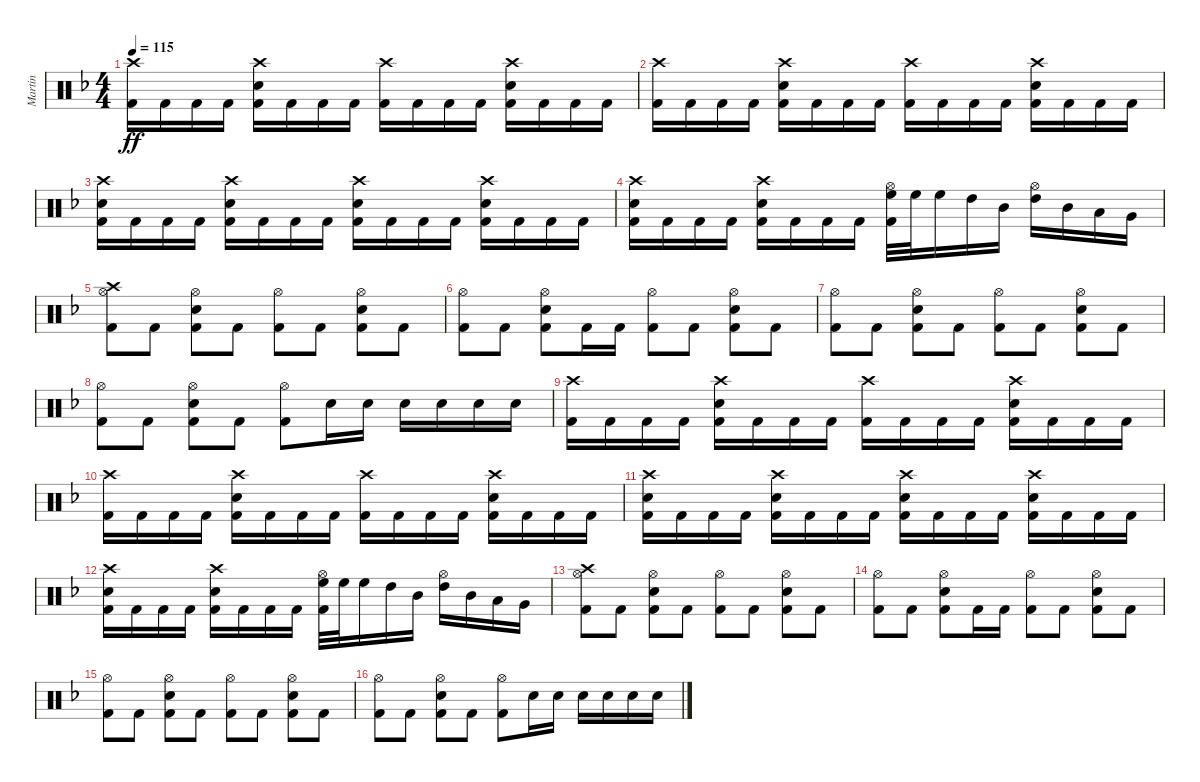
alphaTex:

\track ("Martin" "Martin") {instrument percussion}
\staff {score}
\articulation defaults
\ts (4 4)
\tempo 115
\clef neutral
\ks dminor
("Crash high (hit)" "Kick (hit) 2").16{dy ff} "Kick (hit) 2".16 "Kick (hit) 2".16 "Kick (hit) 2".16 ("Crash high (hit)" "Electric Snare (hit)" "Kick (hit) 2").16 "Kick (hit) 2".16 "Kick (hit) 2".16 "Kick (hit) 2".16 ("Crash high (hit)" "Kick (hit) 2").16 "Kick (hit) 2".16 "Kick (hit) 2".16 "Kick (hit) 2".16 ("Crash high (hit)" "Electric Snare (hit)" "Kick (hit) 2").16 "Kick (hit) 2".16 "Kick (hit) 2".16 "Kick (hit) 2".16 |
("Crash high (hit)" "Kick (hit) 2").16 "Kick (hit) 2".16 "Kick (hit) 2".16 "Kick (hit) 2".16 ("Crash high (hit)" "Electric Snare (hit)" "Kick (hit) 2").16 "Kick (hit) 2".16 "Kick (hit) 2".16 "Kick (hit) 2".16 ("Crash high (hit)" "Kick (hit) 2").16 "Kick (hit) 2".16 "Kick (hit) 2".16 "Kick (hit) 2".16 ("Crash high (hit)" "Electric Snare (hit)" "Kick (hit) 2").16 "Kick (hit) 2".16 "Kick (hit) 2".16 "Kick (hit) 2".16 |
("Crash high (hit)" "Electric Snare (hit)" "Kick (hit) 2").16 "Kick (hit) 2".16 "Kick (hit) 2".16 "Kick (hit) 2".16 ("Crash high (hit)" "Electric Snare (hit)" "Kick (hit) 2").16 "Kick (hit) 2".16 "Kick (hit) 2".16 "Kick (hit) 2".16 ("Crash high (hit)" "Electric Snare (hit)" "Kick (hit) 2").16 "Kick (hit) 2".16 "Kick (hit) 2".16 "Kick (hit) 2".16 ("Crash high (hit)" "Electric Snare (hit)" "Kick (hit) 2").16 "Kick (hit) 2".16 "Kick (hit) 2".16 "Kick (hit) 2".16 |
("Crash high (hit)" "Electric Snare (hit)" "Kick (hit) 2").16 "Kick (hit) 2".16 "Kick (hit) 2".16 "Kick (hit) 2".16 ("Crash high (hit)" "Electric Snare (hit)" "Kick (hit) 2").16 "Kick (hit) 2".16 "Kick (hit) 2".16 "Kick (hit) 2".16 ("Hi-Hat (open)" "High Floor Tom (hit)" "Kick (hit) 2").32 "High Floor Tom (hit)".32 "High Floor Tom (hit)".16 "High Tom (hit)".16 "Mid Tom (hit)".16 ("Hi-Hat (open)" "High Tom (hit)").16 "Mid Tom (hit)".16 "Low Tom (hit)".16 "Very Low Tom (hit)".16 |
("Crash high (hit)" "Hi-Hat (open)" "Kick (hit) 2").8 "Kick (hit) 2".8 ("Hi-Hat (open)" "Electric Snare (hit)" "Kick (hit) 2").8 "Kick (hit) 2".8 ("Hi-Hat (open)" "Kick (hit) 2").8 "Kick (hit) 2".8 ("Hi-Hat (open)" "Electric Snare (hit)" "Kick (hit) 2").8 "Kick (hit) 2".8 |
("Hi-Hat (open)" "Kick (hit) 2").8 "Kick (hit) 2".8 ("Hi-Hat (open)" "Electric Snare (hit)" "Kick (hit) 2").8 "Kick (hit) 2".16 "Kick (hit) 2".16 ("Hi-Hat (open)" "Kick (hit) 2").8 "Kick (hit) 2".8 ("Hi-Hat (open)" "Electric Snare (hit)" "Kick (hit) 2").8 "Kick (hit) 2".8 |
("Hi-Hat (open)" "Kick (hit) 2").8 "Kick (hit) 2".8 ("Hi-Hat (open)" "Electric Snare (hit)" "Kick (hit) 2").8 "Kick (hit) 2".8 ("Hi-Hat (open)" "Kick (hit) 2").8 "Kick (hit) 2".8 ("Hi-Hat (open)" "Electric Snare (hit)" "Kick (hit) 2").8 "Kick (hit) 2".8 |
("Hi-Hat (open)" "Kick (hit) 2").8 "Kick (hit) 2".8 ("Hi-Hat (open)" "Electric Snare (hit)" "Kick (hit) 2").8 "Kick (hit) 2".8 ("Hi-Hat (open)" "Kick (hit) 2").8 "Electric Snare (hit)".16 "Electric Snare (hit)".16 "Electric Snare (hit)".16 "Electric Snare (hit)".16 "Electric Snare (hit)".16 "Electric Snare (hit)".16 |
("Crash high (hit)" "Kick (hit) 2").16 "Kick (hit) 2".16 "Kick (hit) 2".16 "Kick (hit) 2".16 ("Crash high (hit)" "Electric Snare (hit)" "Kick (hit) 2").16 "Kick (hit) 2".16 "Kick (hit) 2".16 "Kick (hit) 2".16 ("Crash high (hit)" "Kick (hit) 2").16 "Kick (hit) 2".16 "Kick (hit) 2".16 "Kick (hit) 2".16 ("Crash high (hit)" "Electric Snare (hit)" "Kick (hit) 2").16 "Kick (hit) 2".16 "Kick (hit) 2".16 "Kick (hit) 2".16 |
("Crash high (hit)" "Kick (hit) 2").16 "Kick (hit) 2".16 "Kick (hit) 2".16 "Kick (hit) 2".16 ("Crash high (hit)" "Electric Snare (hit)" "Kick (hit) 2").16 "Kick (hit) 2".16 "Kick (hit) 2".16 "Kick (hit) 2".16 ("Crash high (hit)" "Kick (hit) 2").16 "Kick (hit) 2".16 "Kick (hit) 2".16 "Kick (hit) 2".16 ("Crash high (hit)" "Electric Snare (hit)" "Kick (hit) 2").16 "Kick (hit) 2".16 "Kick (hit) 2".16 "Kick (hit) 2".16 |
("Crash high (hit)" "Electric Snare (hit)" "Kick (hit) 2").16 "Kick (hit) 2".16 "Kick (hit) 2".16 "Kick (hit) 2".16 ("Crash high (hit)" "Electric Snare (hit)" "Kick (hit) 2").16 "Kick (hit) 2".16 "Kick (hit) 2".16 "Kick (hit) 2".16 ("Crash high (hit)" "Electric Snare (hit)" "Kick (hit) 2").16 "Kick (hit) 2".16 "Kick (hit) 2".16 "Kick (hit) 2".16 ("Crash high (hit)" "Electric Snare (hit)" "Kick (hit) 2").16 "Kick (hit) 2".16 "Kick (hit) 2".16 "Kick (hit) 2".16 |
("Crash high (hit)" "Electric Snare (hit)" "Kick (hit) 2").16 "Kick (hit) 2".16 "Kick (hit) 2".16 "Kick (hit) 2".16 ("Crash high (hit)" "Electric Snare (hit)" "Kick (hit) 2").16 "Kick (hit) 2".16 "Kick (hit) 2".16 "Kick (hit) 2".16 ("Hi-Hat (open)" "High Floor Tom (hit)" "Kick (hit) 2").32 "High Floor Tom (hit)".32 "High Floor Tom (hit)".16 "High Tom (hit)".16 "Mid Tom (hit)".16 ("Hi-Hat (open)" "High Tom (hit)").16 "Mid Tom (hit)".16 "Low Tom (hit)".16 "Very Low Tom (hit)".16 |
("Crash high (hit)" "Hi-Hat (open)" "Kick (hit) 2").8 "Kick (hit) 2".8 ("Hi-Hat (open)" "Electric Snare (hit)" "Kick (hit) 2").8 "Kick (hit) 2".8 ("Hi-Hat (open)" "Kick (hit) 2").8 "Kick (hit) 2".8 ("Hi-Hat (open)" "Electric Snare (hit)" "Kick (hit) 2").8 "Kick (hit) 2".8 |
("Hi-Hat (open)" "Kick (hit) 2").8 "Kick (hit) 2".8 ("Hi-Hat (open)" "Electric Snare (hit)" "Kick (hit) 2").8 "Kick (hit) 2".16 "Kick (hit) 2".16 ("Hi-Hat (open)" "Kick (hit) 2").8 "Kick (hit) 2".8 ("Hi-Hat (open)" "Electric Snare (hit)" "Kick (hit) 2").8 "Kick (hit) 2".8 |
("Hi-Hat (open)" "Kick (hit) 2").8 "Kick (hit) 2".8 ("Hi-Hat (open)" "Electric Snare (hit)" "Kick (hit) 2").8 "Kick (hit) 2".8 ("Hi-Hat (open)" "Kick (hit) 2").8 "Kick (hit) 2".8 ("Hi-Hat (open)" "Electric Snare (hit)" "Kick (hit) 2").8 "Kick (hit) 2".8 |
("Hi-Hat (open)" "Kick (hit) 2").8 "Kick (hit) 2".8 ("Hi-Hat (open)" "Electric Snare (hit)" "Kick (hit) 2").8 "Kick (hit) 2".8 ("Hi-Hat (open)" "Kick (hit) 2").8 "Electric Snare (hit)".16 "Electric Snare (hit)".16 "Electric Snare (hit)".16 "Electric Snare (hit)".16 "Electric Snare (hit)".16 "Electric Snare (hit)".16
